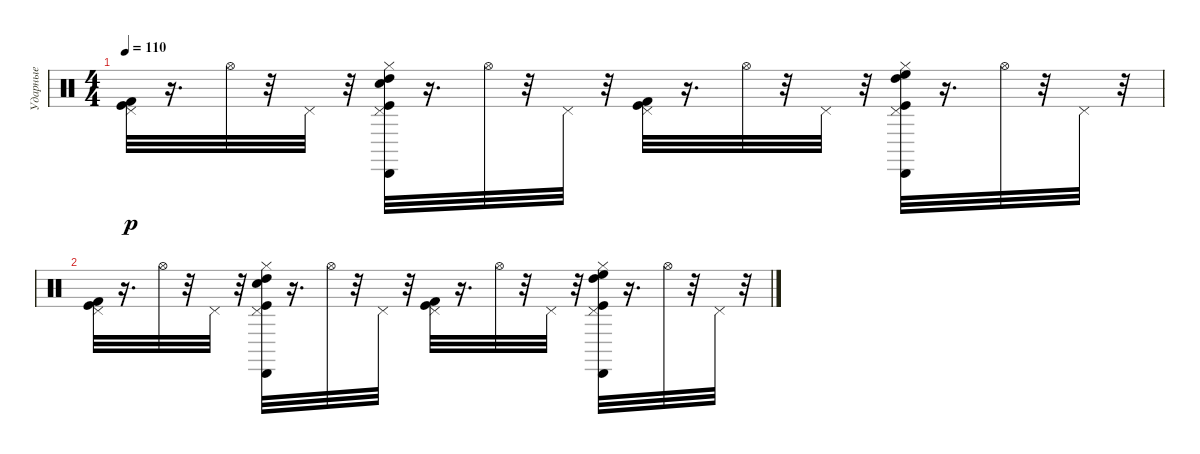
\track ("Ударные" "Ударные") {instrument percussion}
\staff
\articulation defaults
\ts (4 4)
\tempo 110
\clef neutral
\ks c
("Pedal Hi-Hat (hit)" "Kick (hit) 2" "Kick (hit)").32{dy p} r.16{d} "Hi-Hat (open)".32 r.32 "Pedal Hi-Hat (hit)".32 r.32 ("Kick (hit)" "High Tom (hit)" "Cabasa (hit)" "Hi-Hat (closed)" "Pedal Hi-Hat (hit)" "Electric Snare (hit)").32 r.16{d} "Hi-Hat (open)".32 r.32 "Pedal Hi-Hat (hit)".32 r.32 ("Pedal Hi-Hat (hit)" "Kick (hit) 2" "Kick (hit)").32 r.16{d} "Hi-Hat (open)".32 r.32 "Pedal Hi-Hat (hit)".32 r.32 ("Kick (hit)" "High Floor Tom (hit)" "High Tom (hit)" "Cabasa (hit)" "Hi-Hat (closed)" "Pedal Hi-Hat (hit)").32 r.16{d} "Hi-Hat (open)".32 r.32 "Pedal Hi-Hat (hit)".32 r.32 |
("Pedal Hi-Hat (hit)" "Kick (hit) 2" "Kick (hit)").32 r.16{d} "Hi-Hat (open)".32 r.32 "Pedal Hi-Hat (hit)".32 r.32 ("Kick (hit)" "High Tom (hit)" "Cabasa (hit)" "Hi-Hat (closed)" "Pedal Hi-Hat (hit)" "Electric Snare (hit)").32 r.16{d} "Hi-Hat (open)".32 r.32 "Pedal Hi-Hat (hit)".32 r.32 ("Pedal Hi-Hat (hit)" "Kick (hit) 2" "Kick (hit)").32 r.16{d} "Hi-Hat (open)".32 r.32 "Pedal Hi-Hat (hit)".32 r.32 ("Kick (hit)" "High Floor Tom (hit)" "High Tom (hit)" "Cabasa (hit)" "Hi-Hat (closed)" "Pedal Hi-Hat (hit)").32 r.16{d} "Hi-Hat (open)".32 r.32 "Pedal Hi-Hat (hit)".32 r.32
